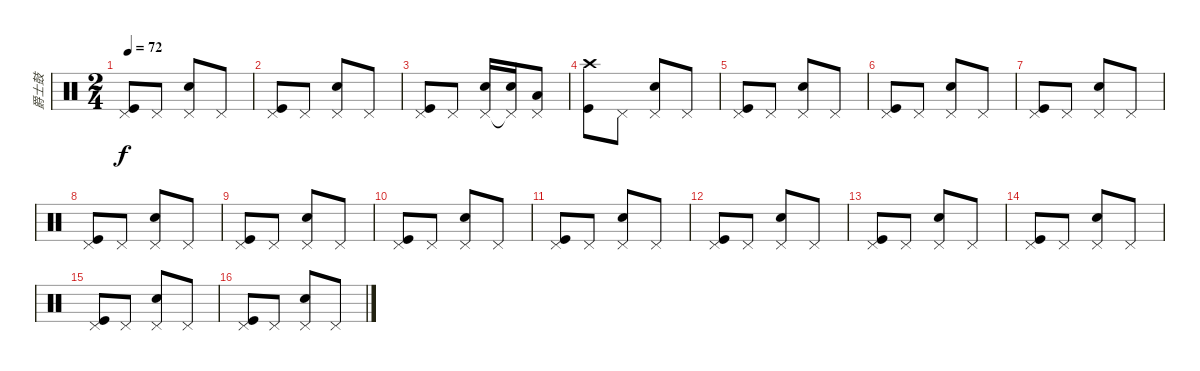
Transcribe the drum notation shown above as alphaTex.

\track ("爵士鼓" "爵士鼓") {instrument percussion}
\staff {score}
\articulation defaults
\ts (2 4)
\tempo 72
\clef neutral
\ks c
("Pedal Hi-Hat (hit)" "Kick (hit)").8{dy f} "Pedal Hi-Hat (hit)".8 ("Pedal Hi-Hat (hit)" "Electric Snare (hit)").8 "Pedal Hi-Hat (hit)".8 |
("Pedal Hi-Hat (hit)" "Kick (hit)").8 "Pedal Hi-Hat (hit)".8 ("Pedal Hi-Hat (hit)" "Electric Snare (hit)").8 "Pedal Hi-Hat (hit)".8 |
("Pedal Hi-Hat (hit)" "Kick (hit)").8 "Pedal Hi-Hat (hit)".8 ("Pedal Hi-Hat (hit)" "Electric Snare (hit)").16 ("Pedal Hi-Hat (hit)"{t} "Electric Snare (hit)").16 ("Pedal Hi-Hat (hit)" "Low Floor Tom (hit)").8 |
("Crash high (hit)" "Kick (hit)").8 "Pedal Hi-Hat (hit)".8 ("Pedal Hi-Hat (hit)" "Electric Snare (hit)").8 "Pedal Hi-Hat (hit)".8 |
("Pedal Hi-Hat (hit)" "Kick (hit)").8 "Pedal Hi-Hat (hit)".8 ("Pedal Hi-Hat (hit)" "Electric Snare (hit)").8 "Pedal Hi-Hat (hit)".8 |
("Pedal Hi-Hat (hit)" "Kick (hit)").8 "Pedal Hi-Hat (hit)".8 ("Pedal Hi-Hat (hit)" "Electric Snare (hit)").8 "Pedal Hi-Hat (hit)".8 |
("Pedal Hi-Hat (hit)" "Kick (hit)").8 "Pedal Hi-Hat (hit)".8 ("Pedal Hi-Hat (hit)" "Electric Snare (hit)").8 "Pedal Hi-Hat (hit)".8 |
("Pedal Hi-Hat (hit)" "Kick (hit)").8 "Pedal Hi-Hat (hit)".8 ("Pedal Hi-Hat (hit)" "Electric Snare (hit)").8 "Pedal Hi-Hat (hit)".8 |
("Pedal Hi-Hat (hit)" "Kick (hit)").8 "Pedal Hi-Hat (hit)".8 ("Pedal Hi-Hat (hit)" "Electric Snare (hit)").8 "Pedal Hi-Hat (hit)".8 |
("Pedal Hi-Hat (hit)" "Kick (hit)").8 "Pedal Hi-Hat (hit)".8 ("Pedal Hi-Hat (hit)" "Electric Snare (hit)").8 "Pedal Hi-Hat (hit)".8 |
("Pedal Hi-Hat (hit)" "Kick (hit)").8 "Pedal Hi-Hat (hit)".8 ("Pedal Hi-Hat (hit)" "Electric Snare (hit)").8 "Pedal Hi-Hat (hit)".8 |
("Pedal Hi-Hat (hit)" "Kick (hit)").8 "Pedal Hi-Hat (hit)".8 ("Pedal Hi-Hat (hit)" "Electric Snare (hit)").8 "Pedal Hi-Hat (hit)".8 |
("Pedal Hi-Hat (hit)" "Kick (hit)").8 "Pedal Hi-Hat (hit)".8 ("Pedal Hi-Hat (hit)" "Electric Snare (hit)").8 "Pedal Hi-Hat (hit)".8 |
("Pedal Hi-Hat (hit)" "Kick (hit)").8 "Pedal Hi-Hat (hit)".8 ("Pedal Hi-Hat (hit)" "Electric Snare (hit)").8 "Pedal Hi-Hat (hit)".8 |
("Pedal Hi-Hat (hit)" "Kick (hit)").8 "Pedal Hi-Hat (hit)".8 ("Pedal Hi-Hat (hit)" "Electric Snare (hit)").8 "Pedal Hi-Hat (hit)".8 |
("Pedal Hi-Hat (hit)" "Kick (hit)").8 "Pedal Hi-Hat (hit)".8 ("Pedal Hi-Hat (hit)" "Electric Snare (hit)").8 "Pedal Hi-Hat (hit)".8
